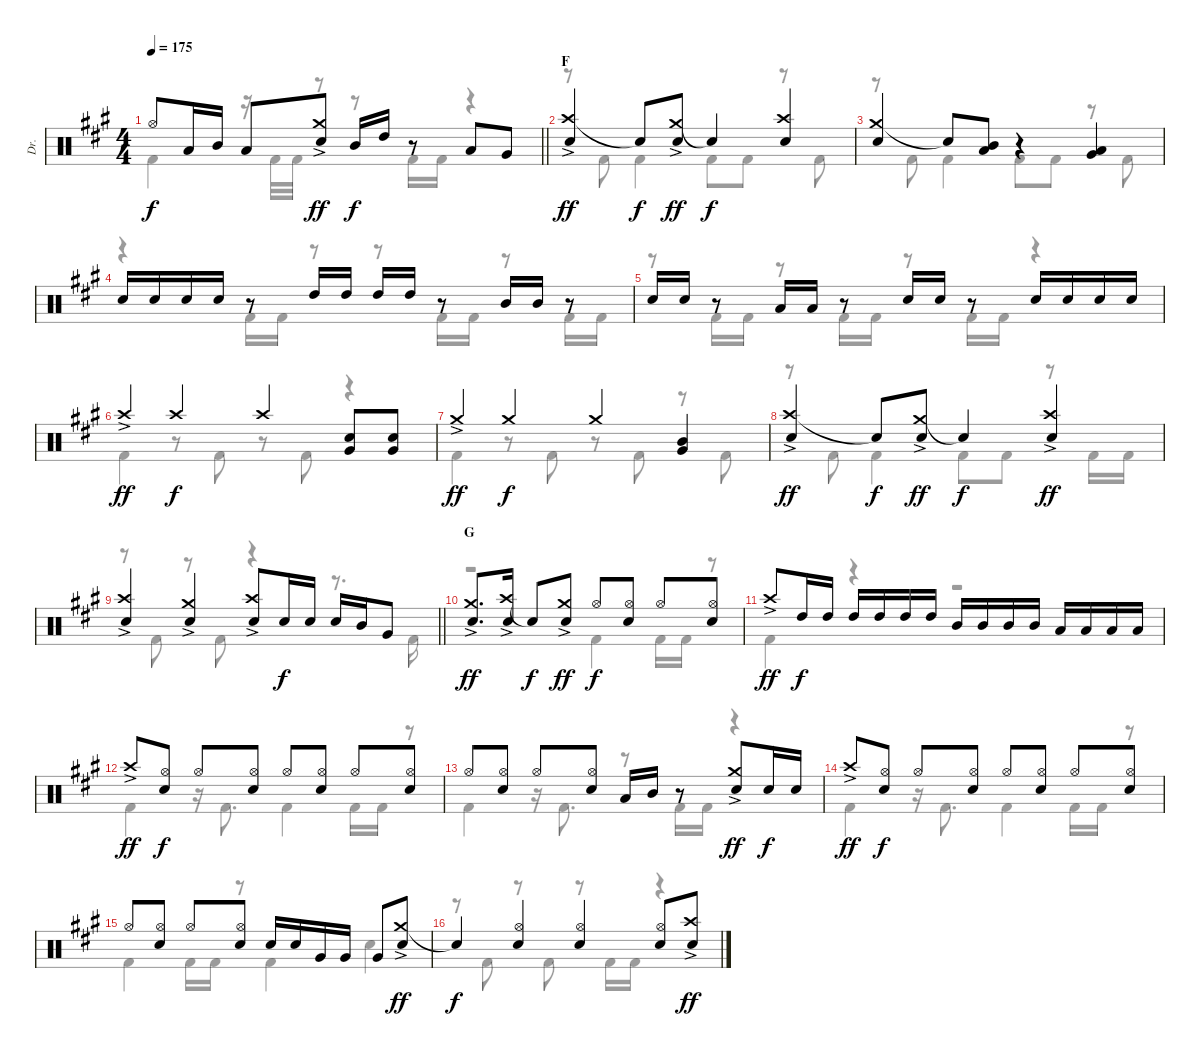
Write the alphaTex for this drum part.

\track ("Dr." "Dr.") {instrument percussion}
\staff {score}
\articulation defaults
\voice
\ts (4 4)
\tempo 175
\clef neutral
\barLineRight lightlight
\ks f#minor "Hi-Hat (open)".8{dy f} "Low Tom (hit)".16 "Mid Tom (hit)".16 "Low Tom (hit)".8
("Crash medium (hit)"{ac} "Electric Snare (hit)").8{dy ff} "Mid Tom (hit)".16{dy f} "High Tom (hit)".16 r.8 "Low Tom (hit)".8 "Very Low Tom (hit)".8 |
\section ("" "F")
("Crash high (hit)"{ac} "Electric Snare (hit)").4{dy ff} "Snare (hit)"{t}.8{dy f} ("Crash medium (hit)"{ac} "Electric Snare (hit)").8{dy ff} "Snare (hit)"{t}.4{dy f} ("Crash high (hit)" "Electric Snare (hit)").4 |
("Crash medium (hit)" "Electric Snare (hit)").4 "Snare (hit)"{t}.8 ("Mid Tom (hit)" "Low Tom (hit)").8 r.4 ("Low Tom (hit)" "Very Low Tom (hit)").4 |
"Electric Snare (hit)".16 "Electric Snare (hit)".16 "Electric Snare (hit)".16 "Electric Snare (hit)".16 r.8 "High Tom (hit)".16 "High Tom (hit)".16 "High Tom (hit)".16 "High Tom (hit)".16 r.8 "Mid Tom (hit)".16 "Mid Tom (hit)".16 r.8 |
"Electric Snare (hit)".16 "Electric Snare (hit)".16 r.8 "Low Tom (hit)".16 "Low Tom (hit)".16 r.8 "Electric Snare (hit)".16 "Electric Snare (hit)".16 r.8 "Electric Snare (hit)".16 "Electric Snare (hit)".16 "Electric Snare (hit)".16 "Electric Snare (hit)".16 |
"Crash high (hit)"{ac}.4{dy ff} "Crash high (hit)".4{dy f} "Crash high (hit)".4 ("Electric Snare (hit)" "Very Low Tom (hit)").8 ("Electric Snare (hit)" "Very Low Tom (hit)").8 |
"Crash medium (hit)"{ac}.4{dy ff} "Crash medium (hit)".4{dy f} "Crash medium (hit)".4 ("Mid Tom (hit)" "Very Low Tom (hit)").4 |
("Crash high (hit)"{ac} "Electric Snare (hit)").4{dy ff} "Snare (hit)"{t}.8{dy f} ("Crash medium (hit)"{ac} "Electric Snare (hit)").8{dy ff} "Snare (hit)"{t}.4{dy f} ("Crash high (hit)"{ac} "Electric Snare (hit)").4{dy ff} |
\barLineRight lightlight
("Crash high (hit)"{ac} "Electric Snare (hit)").4 ("Crash medium (hit)"{ac} "Electric Snare (hit)").4 ("Crash high (hit)"{ac} "Electric Snare (hit)").8 "Electric Snare (hit)".16{dy f} "Electric Snare (hit)".16 "Electric Snare (hit)".16 "Mid Tom (hit)".16 "Very Low Tom (hit)".8 |
\section ("" "G")
("Crash medium (hit)"{ac} "Electric Snare (hit)").8{d dy ff} ("Crash high (hit)"{ac} "Electric Snare (hit)").16 "Snare (hit)"{t}.8{dy f} ("Crash medium (hit)"{ac} "Electric Snare (hit)").8{dy ff} "Hi-Hat (open)".8{dy f} ("Hi-Hat (open)" "Electric Snare (hit)").8 "Hi-Hat (open)".8 ("Hi-Hat (open)" "Electric Snare (hit)").8 |
"Crash high (hit)"{ac}.8{dy ff} "High Tom (hit)".16{dy f} "High Tom (hit)".16 "High Tom (hit)".16 "High Tom (hit)".16 "High Tom (hit)".16 "High Tom (hit)".16 "Mid Tom (hit)".16 "Mid Tom (hit)".16 "Mid Tom (hit)".16 "Mid Tom (hit)".16 "Low Tom (hit)".16 "Low Tom (hit)".16 "Low Tom (hit)".16 "Low Tom (hit)".16 |
"Crash high (hit)"{ac}.8{dy ff} ("Hi-Hat (open)" "Electric Snare (hit)").8{dy f} "Hi-Hat (open)".8 ("Hi-Hat (open)" "Electric Snare (hit)").8 "Hi-Hat (open)".8 ("Hi-Hat (open)" "Electric Snare (hit)").8 "Hi-Hat (open)".8 ("Hi-Hat (open)" "Electric Snare (hit)").8 |
"Hi-Hat (open)".8 ("Hi-Hat (open)" "Electric Snare (hit)").8 "Hi-Hat (open)".8 ("Hi-Hat (open)" "Electric Snare (hit)").8 "Low Tom (hit)".16 "Mid Tom (hit)".16 r.8 ("Crash medium (hit)"{ac} "Electric Snare (hit)").8{dy ff} "Electric Snare (hit)".16{dy f} "Electric Snare (hit)".16 |
"Crash high (hit)"{ac}.8{dy ff} ("Hi-Hat (open)" "Electric Snare (hit)").8{dy f} "Hi-Hat (open)".8 ("Hi-Hat (open)" "Electric Snare (hit)").8 "Hi-Hat (open)".8 ("Hi-Hat (open)" "Electric Snare (hit)").8 "Hi-Hat (open)".8 ("Hi-Hat (open)" "Electric Snare (hit)").8 |
"Hi-Hat (open)".8 ("Hi-Hat (open)" "Electric Snare (hit)").8 "Hi-Hat (open)".8 ("Hi-Hat (open)" "Electric Snare (hit)").8 "Electric Snare (hit)".16 "Electric Snare (hit)".16 "Very Low Tom (hit)".16 "Very Low Tom (hit)".16 "Very Low Tom (hit)".8 ("Crash medium (hit)"{ac} "Electric Snare (hit)").8{dy ff} |
"Snare (hit)"{t}.4{dy f} ("Hi-Hat (open)" "Electric Snare (hit)").4 ("Hi-Hat (open)" "Electric Snare (hit)").4 ("Hi-Hat (open)" "Electric Snare (hit)").8 ("Crash high (hit)"{ac} "Electric Snare (hit)").8{dy ff}
\voice
\clef neutral
\ottava regular
\simile none
\barLineRight lightlight
\ks f#minor "Kick (hit) 2".4{dy f}
r.16 "Kick (hit) 2".32 "Kick (hit) 2".32 r.8 r.8 "Kick (hit) 2".16 "Kick (hit) 2".16 r.4 |
r.8 "Kick (hit) 2".8 "Kick (hit) 2".4 "Kick (hit) 2".8 "Kick (hit) 2".8 r.8 "Kick (hit) 2".8 |
r.8 "Kick (hit) 2".8 "Kick (hit) 2".4 "Kick (hit) 2".8 "Kick (hit) 2".8 r.8 "Kick (hit) 2".8 |
r.4 "Kick (hit) 2".16 "Kick (hit) 2".16 r.8 r.8 "Kick (hit) 2".16 "Kick (hit) 2".16 r.8 "Kick (hit) 2".16 "Kick (hit) 2".16 |
r.8 "Kick (hit) 2".16 "Kick (hit) 2".16 r.8 "Kick (hit) 2".16 "Kick (hit) 2".16 r.8 "Kick (hit) 2".16 "Kick (hit) 2".16 r.4 |
"Kick (hit) 2".4 r.8 "Kick (hit) 2".8 r.8 "Kick (hit) 2".8 r.4 |
"Kick (hit) 2".4 r.8 "Kick (hit) 2".8 r.8 "Kick (hit) 2".8 r.8 "Kick (hit) 2".8 |
r.8 "Kick (hit) 2".8 "Kick (hit) 2".4 "Kick (hit) 2".8 "Kick (hit) 2".8 r.8 "Kick (hit) 2".16 "Kick (hit) 2".16 |
\barLineRight lightlight
r.8 "Kick (hit) 2".8 r.8 "Kick (hit) 2".8 r.4 r.8{d} "Kick (hit) 2".16 |
r.2 "Kick (hit) 2".4 "Kick (hit) 2".16 "Kick (hit) 2".16 r.8 |
"Kick (hit) 2".4 r.4 r.2 |
"Kick (hit) 2".4 r.16 "Kick (hit) 2".8{d} "Kick (hit) 2".4 "Kick (hit) 2".16 "Kick (hit) 2".16 r.8 |
"Kick (hit) 2".4 r.16 "Kick (hit) 2".8{d} r.8 "Kick (hit) 2".16 "Kick (hit) 2".16 r.4 |
"Kick (hit) 2".4 r.16 "Kick (hit) 2".8{d} "Kick (hit) 2".4 "Kick (hit) 2".16 "Kick (hit) 2".16 r.8 |
"Kick (hit) 2".4 "Kick (hit) 2".16 "Kick (hit) 2".16 r.8 "Kick (hit) 2".4 "Snare (hit)".4 |
r.8 "Kick (hit) 2".8 r.8 "Kick (hit) 2".8 r.8 "Kick (hit) 2".16 "Kick (hit) 2".16 r.4
